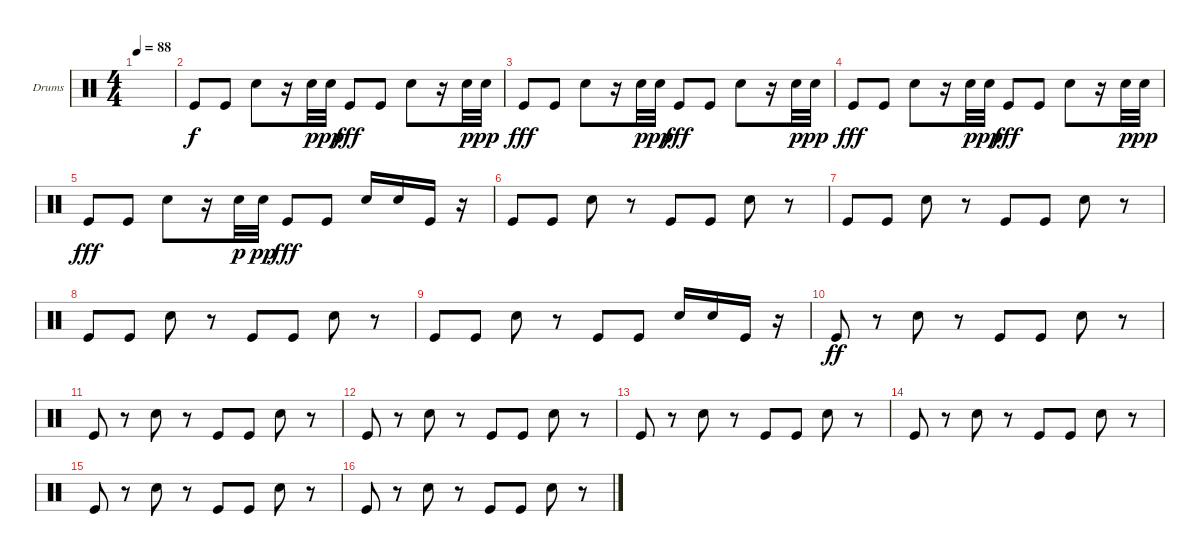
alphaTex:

\defaultSystemsLayout 4
\bracketExtendMode groupsimilarinstruments
\firstSystemTrackNameOrientation horizontal
\otherSystemsTrackNameOrientation horizontal
\track ("Drumkit" "Drums") {instrument percussion}
\staff {score}
\articulation defaults
\ts (4 4)
\tempo 88
\clef neutral
\scale
0.472222
\ks c
|
\scale
0.263889 "Kick (hit)".8 "Kick (hit)".8 "Snare (hit) 2".8 r.16 "Snare (hit) 2".32{dy p} "Snare (hit) 2".32{dy pp} "Kick (hit)".8{dy fff} "Kick (hit)".8 "Snare (hit) 2".8 r.16 "Snare (hit) 2".32{dy p} "Snare (hit) 2".32{dy pp} |
\scale
0.263889 "Kick (hit)".8{dy fff} "Kick (hit)".8 "Snare (hit) 2".8 r.16 "Snare (hit) 2".32{dy p} "Snare (hit) 2".32{dy pp} "Kick (hit)".8{dy fff} "Kick (hit)".8 "Snare (hit) 2".8 r.16 "Snare (hit) 2".32{dy p} "Snare (hit) 2".32{dy pp} |
\scale
0.333333 "Kick (hit)".8{dy fff} "Kick (hit)".8 "Snare (hit) 2".8 r.16 "Snare (hit) 2".32{dy p} "Snare (hit) 2".32{dy pp} "Kick (hit)".8{dy fff} "Kick (hit)".8 "Snare (hit) 2".8 r.16 "Snare (hit) 2".32{dy p} "Snare (hit) 2".32{dy pp} |
\scale
0.333333 "Kick (hit)".8{dy fff} "Kick (hit)".8 "Snare (hit) 2".8 r.16 "Snare (hit) 2".32{dy p} "Snare (hit) 2".32{dy pp} "Kick (hit)".8{dy fff} "Kick (hit)".8 "Snare (hit) 2".16 "Snare (hit) 2".16 "Kick (hit)".16 r.16 |
\scale
0.333333 "Kick (hit)".8 "Kick (hit)".8 "Snare (hit) 2".8 r.8 "Kick (hit)".8 "Kick (hit)".8 "Snare (hit) 2".8 r.8 |
\scale
0.333333 "Kick (hit)".8 "Kick (hit)".8 "Snare (hit) 2".8 r.8 "Kick (hit)".8 "Kick (hit)".8 "Snare (hit) 2".8 r.8 |
\scale
0.333333 "Kick (hit)".8 "Kick (hit)".8 "Snare (hit) 2".8 r.8 "Kick (hit)".8 "Kick (hit)".8 "Snare (hit) 2".8 r.8 |
\scale
0.333333 "Kick (hit)".8 "Kick (hit)".8 "Snare (hit) 2".8 r.8 "Kick (hit)".8 "Kick (hit)".8 "Snare (hit) 2".16 "Snare (hit) 2".16 "Kick (hit)".16 r.16 |
"Kick (hit)".8{dy ff} r.8 "Snare (hit) 2".8 r.8 "Kick (hit)".8 "Kick (hit)".8 "Snare (hit) 2".8 r.8 |
"Kick (hit)".8 r.8 "Snare (hit) 2".8 r.8 "Kick (hit)".8 "Kick (hit)".8 "Snare (hit) 2".8 r.8 |
"Kick (hit)".8 r.8 "Snare (hit) 2".8 r.8 "Kick (hit)".8 "Kick (hit)".8 "Snare (hit) 2".8 r.8 |
"Kick (hit)".8 r.8 "Snare (hit) 2".8 r.8 "Kick (hit)".8 "Kick (hit)".8 "Snare (hit) 2".8 r.8 |
"Kick (hit)".8 r.8 "Snare (hit) 2".8 r.8 "Kick (hit)".8 "Kick (hit)".8 "Snare (hit) 2".8 r.8 |
"Kick (hit)".8 r.8 "Snare (hit) 2".8 r.8 "Kick (hit)".8 "Kick (hit)".8 "Snare (hit) 2".8 r.8 |
"Kick (hit)".8 r.8 "Snare (hit) 2".8 r.8 "Kick (hit)".8 "Kick (hit)".8 "Snare (hit) 2".8 r.8
